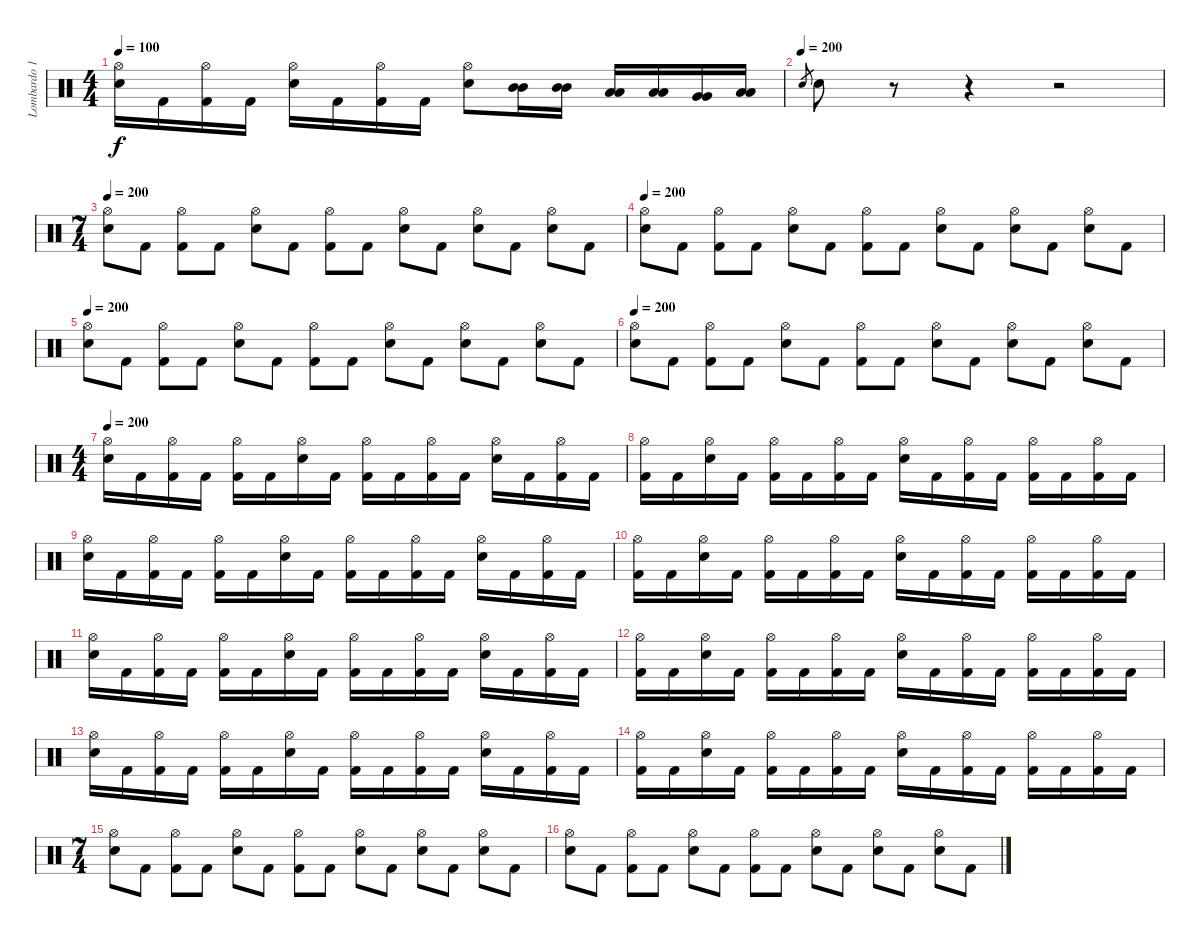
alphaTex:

\track ("Lombardo 1" "Lombardo 1") {instrument percussion}
\staff {score}
\articulation defaults
\ts (4 4)
\tempo 110
\tempo 100
\clef neutral
\ks c
("Hi-Hat (open)" "Electric Snare (hit)").16{dy f} "Kick (hit) 2".16 ("Hi-Hat (open)" "Kick (hit) 2").16 "Kick (hit) 2".16 ("Hi-Hat (open)" "Electric Snare (hit)").16 "Kick (hit) 2".16 ("Hi-Hat (open)" "Kick (hit) 2").16 "Kick (hit) 2".16 ("Hi-Hat (open)" "Electric Snare (hit)").8 ("Mid Tom (hit)" "Mid Tom (hit)").16 ("Mid Tom (hit)" "Mid Tom (hit)").16 ("Low Tom (hit)" "Low Tom (hit)").16 ("Low Tom (hit)" "Low Tom (hit)").16 ("Very Low Tom (hit)" "Very Low Tom (hit)").16 ("Low Floor Tom (hit)" "Low Floor Tom (hit)").16 |
\tempo (200)
"Electric Snare (hit)".8{gr} "Electric Snare (hit)".8 r.8 r.4 r.2 |
\ts (7 4)
\tempo 200
("Hi-Hat (open)" "Electric Snare (hit)").8 "Kick (hit) 2".8 ("Hi-Hat (open)" "Kick (hit) 2").8 "Kick (hit) 2".8 ("Hi-Hat (open)" "Electric Snare (hit)").8 "Kick (hit) 2".8 ("Hi-Hat (open)" "Kick (hit) 2").8 "Kick (hit) 2".8 ("Hi-Hat (open)" "Electric Snare (hit)").8 "Kick (hit) 2".8 ("Hi-Hat (open)" "Electric Snare (hit)").8 "Kick (hit) 2".8 ("Hi-Hat (open)" "Electric Snare (hit)").8 "Kick (hit) 2".8 |
\tempo 200
("Hi-Hat (open)" "Electric Snare (hit)").8 "Kick (hit) 2".8 ("Hi-Hat (open)" "Kick (hit) 2").8 "Kick (hit) 2".8 ("Hi-Hat (open)" "Electric Snare (hit)").8 "Kick (hit) 2".8 ("Hi-Hat (open)" "Kick (hit) 2").8 "Kick (hit) 2".8 ("Hi-Hat (open)" "Electric Snare (hit)").8 "Kick (hit) 2".8 ("Hi-Hat (open)" "Electric Snare (hit)").8 "Kick (hit) 2".8 ("Hi-Hat (open)" "Electric Snare (hit)").8 "Kick (hit) 2".8 |
\tempo 200
("Hi-Hat (open)" "Electric Snare (hit)").8 "Kick (hit) 2".8 ("Hi-Hat (open)" "Kick (hit) 2").8 "Kick (hit) 2".8 ("Hi-Hat (open)" "Electric Snare (hit)").8 "Kick (hit) 2".8 ("Hi-Hat (open)" "Kick (hit) 2").8 "Kick (hit) 2".8 ("Hi-Hat (open)" "Electric Snare (hit)").8 "Kick (hit) 2".8 ("Hi-Hat (open)" "Electric Snare (hit)").8 "Kick (hit) 2".8 ("Hi-Hat (open)" "Electric Snare (hit)").8 "Kick (hit) 2".8 |
\tempo 200
("Hi-Hat (open)" "Electric Snare (hit)").8 "Kick (hit) 2".8 ("Hi-Hat (open)" "Kick (hit) 2").8 "Kick (hit) 2".8 ("Hi-Hat (open)" "Electric Snare (hit)").8 "Kick (hit) 2".8 ("Hi-Hat (open)" "Kick (hit) 2").8 "Kick (hit) 2".8 ("Hi-Hat (open)" "Electric Snare (hit)").8 "Kick (hit) 2".8 ("Hi-Hat (open)" "Electric Snare (hit)").8 "Kick (hit) 2".8 ("Hi-Hat (open)" "Electric Snare (hit)").8 "Kick (hit) 2".8 |
\ts (4 4)
\tempo 200
("Hi-Hat (open)" "Electric Snare (hit)").16 "Kick (hit) 2".16 ("Hi-Hat (open)" "Kick (hit) 2").16 "Kick (hit) 2".16 ("Hi-Hat (open)" "Kick (hit) 2").16 "Kick (hit) 2".16 ("Hi-Hat (open)" "Electric Snare (hit)").16 "Kick (hit) 2".16 ("Hi-Hat (open)" "Kick (hit) 2").16 "Kick (hit) 2".16 ("Hi-Hat (open)" "Kick (hit) 2").16 "Kick (hit) 2".16 ("Hi-Hat (open)" "Electric Snare (hit)").16 "Kick (hit) 2".16 ("Hi-Hat (open)" "Kick (hit) 2").16 "Kick (hit) 2".16 |
("Hi-Hat (open)" "Kick (hit) 2").16 "Kick (hit) 2".16 ("Hi-Hat (open)" "Electric Snare (hit)").16 "Kick (hit) 2".16 ("Hi-Hat (open)" "Kick (hit) 2").16 "Kick (hit) 2".16 ("Hi-Hat (open)" "Kick (hit) 2").16 "Kick (hit) 2".16 ("Hi-Hat (open)" "Electric Snare (hit)").16 "Kick (hit) 2".16 ("Hi-Hat (open)" "Kick (hit) 2").16 "Kick (hit) 2".16 ("Hi-Hat (open)" "Kick (hit) 2").16 "Kick (hit) 2".16 ("Hi-Hat (open)" "Kick (hit) 2").16 "Kick (hit) 2".16 |
("Hi-Hat (open)" "Electric Snare (hit)").16 "Kick (hit) 2".16 ("Hi-Hat (open)" "Kick (hit) 2").16 "Kick (hit) 2".16 ("Hi-Hat (open)" "Kick (hit) 2").16 "Kick (hit) 2".16 ("Hi-Hat (open)" "Electric Snare (hit)").16 "Kick (hit) 2".16 ("Hi-Hat (open)" "Kick (hit) 2").16 "Kick (hit) 2".16 ("Hi-Hat (open)" "Kick (hit) 2").16 "Kick (hit) 2".16 ("Hi-Hat (open)" "Electric Snare (hit)").16 "Kick (hit) 2".16 ("Hi-Hat (open)" "Kick (hit) 2").16 "Kick (hit) 2".16 |
("Hi-Hat (open)" "Kick (hit) 2").16 "Kick (hit) 2".16 ("Hi-Hat (open)" "Electric Snare (hit)").16 "Kick (hit) 2".16 ("Hi-Hat (open)" "Kick (hit) 2").16 "Kick (hit) 2".16 ("Hi-Hat (open)" "Kick (hit) 2").16 "Kick (hit) 2".16 ("Hi-Hat (open)" "Electric Snare (hit)").16 "Kick (hit) 2".16 ("Hi-Hat (open)" "Kick (hit) 2").16 "Kick (hit) 2".16 ("Hi-Hat (open)" "Kick (hit) 2").16 "Kick (hit) 2".16 ("Hi-Hat (open)" "Kick (hit) 2").16 "Kick (hit) 2".16 |
("Hi-Hat (open)" "Electric Snare (hit)").16 "Kick (hit) 2".16 ("Hi-Hat (open)" "Kick (hit) 2").16 "Kick (hit) 2".16 ("Hi-Hat (open)" "Kick (hit) 2").16 "Kick (hit) 2".16 ("Hi-Hat (open)" "Electric Snare (hit)").16 "Kick (hit) 2".16 ("Hi-Hat (open)" "Kick (hit) 2").16 "Kick (hit) 2".16 ("Hi-Hat (open)" "Kick (hit) 2").16 "Kick (hit) 2".16 ("Hi-Hat (open)" "Electric Snare (hit)").16 "Kick (hit) 2".16 ("Hi-Hat (open)" "Kick (hit) 2").16 "Kick (hit) 2".16 |
("Hi-Hat (open)" "Kick (hit) 2").16 "Kick (hit) 2".16 ("Hi-Hat (open)" "Electric Snare (hit)").16 "Kick (hit) 2".16 ("Hi-Hat (open)" "Kick (hit) 2").16 "Kick (hit) 2".16 ("Hi-Hat (open)" "Kick (hit) 2").16 "Kick (hit) 2".16 ("Hi-Hat (open)" "Electric Snare (hit)").16 "Kick (hit) 2".16 ("Hi-Hat (open)" "Kick (hit) 2").16 "Kick (hit) 2".16 ("Hi-Hat (open)" "Kick (hit) 2").16 "Kick (hit) 2".16 ("Hi-Hat (open)" "Kick (hit) 2").16 "Kick (hit) 2".16 |
("Hi-Hat (open)" "Electric Snare (hit)").16 "Kick (hit) 2".16 ("Hi-Hat (open)" "Kick (hit) 2").16 "Kick (hit) 2".16 ("Hi-Hat (open)" "Kick (hit) 2").16 "Kick (hit) 2".16 ("Hi-Hat (open)" "Electric Snare (hit)").16 "Kick (hit) 2".16 ("Hi-Hat (open)" "Kick (hit) 2").16 "Kick (hit) 2".16 ("Hi-Hat (open)" "Kick (hit) 2").16 "Kick (hit) 2".16 ("Hi-Hat (open)" "Electric Snare (hit)").16 "Kick (hit) 2".16 ("Hi-Hat (open)" "Kick (hit) 2").16 "Kick (hit) 2".16 |
("Hi-Hat (open)" "Kick (hit) 2").16 "Kick (hit) 2".16 ("Hi-Hat (open)" "Electric Snare (hit)").16 "Kick (hit) 2".16 ("Hi-Hat (open)" "Kick (hit) 2").16 "Kick (hit) 2".16 ("Hi-Hat (open)" "Kick (hit) 2").16 "Kick (hit) 2".16 ("Hi-Hat (open)" "Electric Snare (hit)").16 "Kick (hit) 2".16 ("Hi-Hat (open)" "Kick (hit) 2").16 "Kick (hit) 2".16 ("Hi-Hat (open)" "Kick (hit) 2").16 "Kick (hit) 2".16 ("Hi-Hat (open)" "Kick (hit) 2").16 "Kick (hit) 2".16 |
\ts (7 4)
("Hi-Hat (open)" "Electric Snare (hit)").8 "Kick (hit) 2".8 ("Hi-Hat (open)" "Kick (hit) 2").8 "Kick (hit) 2".8 ("Hi-Hat (open)" "Electric Snare (hit)").8 "Kick (hit) 2".8 ("Hi-Hat (open)" "Kick (hit) 2").8 "Kick (hit) 2".8 ("Hi-Hat (open)" "Electric Snare (hit)").8 "Kick (hit) 2".8 ("Hi-Hat (open)" "Electric Snare (hit)").8 "Kick (hit) 2".8 ("Hi-Hat (open)" "Electric Snare (hit)").8 "Kick (hit) 2".8 |
("Hi-Hat (open)" "Electric Snare (hit)").8 "Kick (hit) 2".8 ("Hi-Hat (open)" "Kick (hit) 2").8 "Kick (hit) 2".8 ("Hi-Hat (open)" "Electric Snare (hit)").8 "Kick (hit) 2".8 ("Hi-Hat (open)" "Kick (hit) 2").8 "Kick (hit) 2".8 ("Hi-Hat (open)" "Electric Snare (hit)").8 "Kick (hit) 2".8 ("Hi-Hat (open)" "Electric Snare (hit)").8 "Kick (hit) 2".8 ("Hi-Hat (open)" "Electric Snare (hit)").8 "Kick (hit) 2".8
